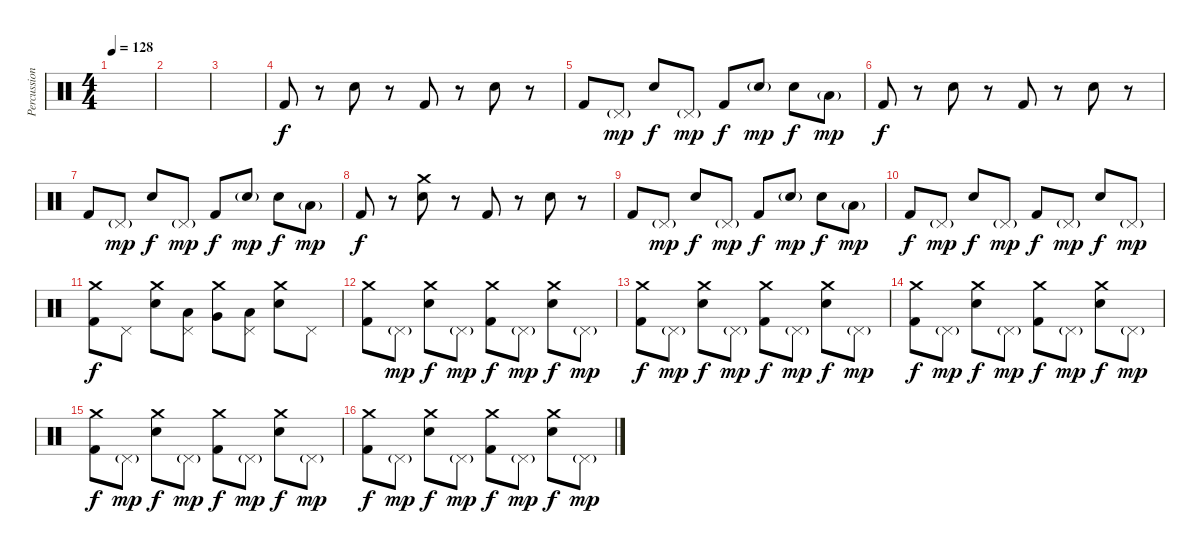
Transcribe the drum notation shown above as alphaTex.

\track ("Percussions" "Percussion") {instrument percussion}
\staff {score}
\articulation defaults
\ts (4 4)
\tempo 128
\clef neutral
\ks c
|
|
|
"Kick (hit) 2".8{dy f} r.8 "Electric Snare (hit)".8 r.8 "Kick (hit) 2".8 r.8 "Electric Snare (hit)".8 r.8 |
"Kick (hit) 2".8 "Pedal Hi-Hat (hit)"{g}.8{dy mp} "Electric Snare (hit)".8{dy f} "Pedal Hi-Hat (hit)"{g}.8{dy mp} "Kick (hit) 2".8{dy f} "Electric Snare (hit)"{g}.8{dy mp} "Electric Snare (hit)".8{dy f} "Low Tom (hit)"{g}.8{dy mp} |
"Kick (hit) 2".8{dy f} r.8 "Electric Snare (hit)".8 r.8 "Kick (hit) 2".8 r.8 "Electric Snare (hit)".8 r.8 |
"Kick (hit) 2".8 "Pedal Hi-Hat (hit)"{g}.8{dy mp} "Electric Snare (hit)".8{dy f} "Pedal Hi-Hat (hit)"{g}.8{dy mp} "Kick (hit) 2".8{dy f} "Electric Snare (hit)"{g}.8{dy mp} "Electric Snare (hit)".8{dy f} "Low Tom (hit)"{g}.8{dy mp} |
"Kick (hit) 2".8{dy f} r.8 ("Crash medium (hit)" "Electric Snare (hit)").8 r.8 "Kick (hit) 2".8 r.8 "Electric Snare (hit)".8 r.8 |
"Kick (hit) 2".8 "Pedal Hi-Hat (hit)"{g}.8{dy mp} "Electric Snare (hit)".8{dy f} "Pedal Hi-Hat (hit)"{g}.8{dy mp} "Kick (hit) 2".8{dy f} "Electric Snare (hit)"{g}.8{dy mp} "Electric Snare (hit)".8{dy f} "Low Tom (hit)"{g}.8{dy mp} |
"Kick (hit) 2".8{dy f} "Pedal Hi-Hat (hit)"{g}.8{dy mp} "Electric Snare (hit)".8{dy f} "Pedal Hi-Hat (hit)"{g}.8{dy mp} "Kick (hit) 2".8{dy f} "Pedal Hi-Hat (hit)"{g}.8{dy mp} "Electric Snare (hit)".8{dy f} "Pedal Hi-Hat (hit)"{g}.8{dy mp} |
("Crash medium (hit)" "Kick (hit) 2").8{dy f} "Pedal Hi-Hat (hit)".8 ("Electric Snare (hit)" "Crash medium (hit)").8 ("Pedal Hi-Hat (hit)" "Low Tom (hit)").8 ("Very Low Tom (hit)" "Crash medium (hit)").8 ("Pedal Hi-Hat (hit)" "Low Floor Tom (hit)").8 ("Electric Snare (hit)" "Crash medium (hit)").8 "Pedal Hi-Hat (hit)".8 |
("Kick (hit) 2" "Crash medium (hit)").8 "Pedal Hi-Hat (hit)"{g}.8{dy mp} ("Electric Snare (hit)" "Crash medium (hit)").8{dy f} "Pedal Hi-Hat (hit)"{g}.8{dy mp} ("Kick (hit) 2" "Crash medium (hit)").8{dy f} "Pedal Hi-Hat (hit)"{g}.8{dy mp} ("Electric Snare (hit)" "Crash medium (hit)").8{dy f} "Pedal Hi-Hat (hit)"{g}.8{dy mp} |
("Kick (hit) 2" "Crash medium (hit)").8{dy f} "Pedal Hi-Hat (hit)"{g}.8{dy mp} ("Electric Snare (hit)" "Crash medium (hit)").8{dy f} "Pedal Hi-Hat (hit)"{g}.8{dy mp} ("Kick (hit) 2" "Crash medium (hit)").8{dy f} "Pedal Hi-Hat (hit)"{g}.8{dy mp} ("Electric Snare (hit)" "Crash medium (hit)").8{dy f} "Pedal Hi-Hat (hit)"{g}.8{dy mp} |
("Kick (hit) 2" "Crash medium (hit)").8{dy f} "Pedal Hi-Hat (hit)"{g}.8{dy mp} ("Electric Snare (hit)" "Crash medium (hit)").8{dy f} "Pedal Hi-Hat (hit)"{g}.8{dy mp} ("Kick (hit) 2" "Crash medium (hit)").8{dy f} "Pedal Hi-Hat (hit)"{g}.8{dy mp} ("Electric Snare (hit)" "Crash medium (hit)").8{dy f} "Pedal Hi-Hat (hit)"{g}.8{dy mp} |
("Kick (hit) 2" "Crash medium (hit)").8{dy f} "Pedal Hi-Hat (hit)"{g}.8{dy mp} ("Electric Snare (hit)" "Crash medium (hit)").8{dy f} "Pedal Hi-Hat (hit)"{g}.8{dy mp} ("Kick (hit) 2" "Crash medium (hit)").8{dy f} "Pedal Hi-Hat (hit)"{g}.8{dy mp} ("Electric Snare (hit)" "Crash medium (hit)").8{dy f} "Pedal Hi-Hat (hit)"{g}.8{dy mp} |
("Kick (hit) 2" "Crash medium (hit)").8{dy f} "Pedal Hi-Hat (hit)"{g}.8{dy mp} ("Electric Snare (hit)" "Crash medium (hit)").8{dy f} "Pedal Hi-Hat (hit)"{g}.8{dy mp} ("Kick (hit) 2" "Crash medium (hit)").8{dy f} "Pedal Hi-Hat (hit)"{g}.8{dy mp} ("Electric Snare (hit)" "Crash medium (hit)").8{dy f} "Pedal Hi-Hat (hit)"{g}.8{dy mp}
